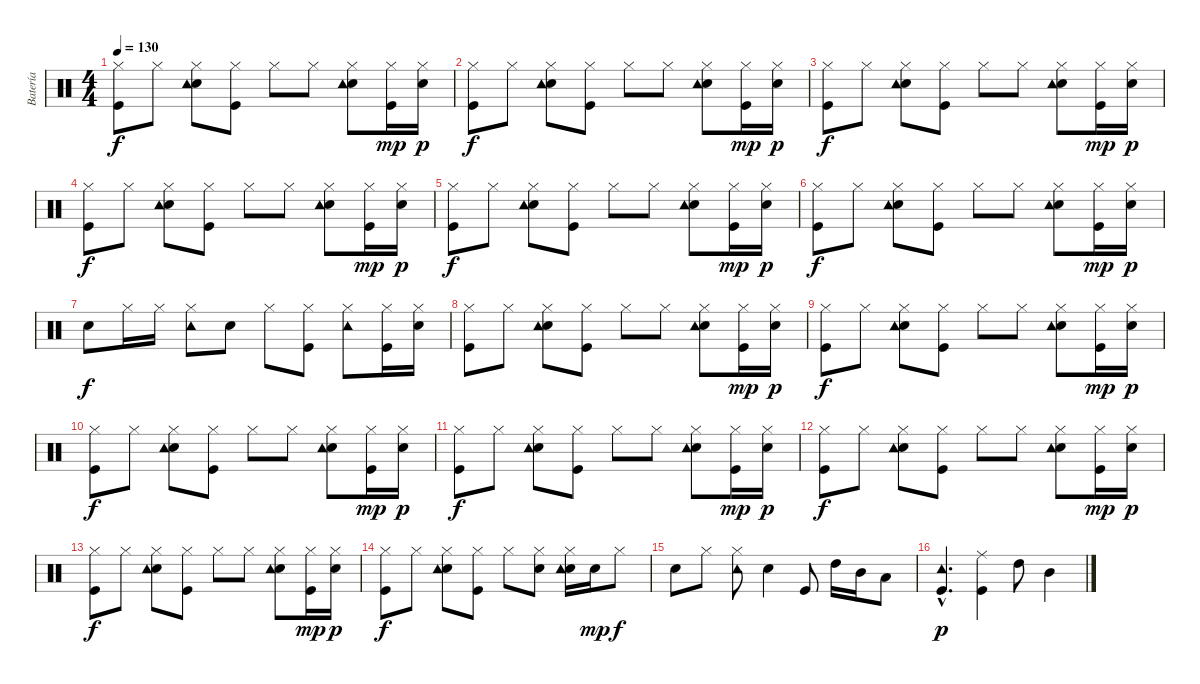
\track ("Batería" "Batería") {instrument percussion}
\staff {score}
\articulation defaults
\ts (4 4)
\tempo 130
\clef neutral
\ks c
("Hi-Hat (closed)" "Kick (hit)").8{dy f} "Hi-Hat (closed)".8 ("Hi-Hat (closed)" "Snare (hit) 2" "Tambourine (hit)").8 ("Hi-Hat (closed)" "Kick (hit)").8 "Hi-Hat (closed)".8 "Hi-Hat (closed)".8 ("Hi-Hat (closed)" "Snare (hit) 2" "Tambourine (hit)").8 ("Hi-Hat (closed)" "Kick (hit)").16{dy mp} ("Hi-Hat (closed)" "Snare (hit) 2").16{dy p} |
("Hi-Hat (closed)" "Kick (hit)").8{dy f} "Hi-Hat (closed)".8 ("Hi-Hat (closed)" "Snare (hit) 2" "Tambourine (hit)").8 ("Hi-Hat (closed)" "Kick (hit)").8 "Hi-Hat (closed)".8 "Hi-Hat (closed)".8 ("Hi-Hat (closed)" "Snare (hit) 2" "Tambourine (hit)").8 ("Hi-Hat (closed)" "Kick (hit)").16{dy mp} ("Hi-Hat (closed)" "Snare (hit) 2").16{dy p} |
("Hi-Hat (closed)" "Kick (hit)").8{dy f} "Hi-Hat (closed)".8 ("Hi-Hat (closed)" "Snare (hit) 2" "Tambourine (hit)").8 ("Hi-Hat (closed)" "Kick (hit)").8 "Hi-Hat (closed)".8 "Hi-Hat (closed)".8 ("Hi-Hat (closed)" "Snare (hit) 2" "Tambourine (hit)").8 ("Hi-Hat (closed)" "Kick (hit)").16{dy mp} ("Hi-Hat (closed)" "Snare (hit) 2").16{dy p} |
("Hi-Hat (closed)" "Kick (hit)").8{dy f} "Hi-Hat (closed)".8 ("Hi-Hat (closed)" "Snare (hit) 2" "Tambourine (hit)").8 ("Hi-Hat (closed)" "Kick (hit)").8 "Hi-Hat (closed)".8 "Hi-Hat (closed)".8 ("Hi-Hat (closed)" "Snare (hit) 2" "Tambourine (hit)").8 ("Hi-Hat (closed)" "Kick (hit)").16{dy mp} ("Hi-Hat (closed)" "Snare (hit) 2").16{dy p} |
("Hi-Hat (closed)" "Kick (hit)").8{dy f} "Hi-Hat (closed)".8 ("Hi-Hat (closed)" "Snare (hit) 2" "Tambourine (hit)").8 ("Hi-Hat (closed)" "Kick (hit)").8 "Hi-Hat (closed)".8 "Hi-Hat (closed)".8 ("Hi-Hat (closed)" "Snare (hit) 2" "Tambourine (hit)").8 ("Hi-Hat (closed)" "Kick (hit)").16{dy mp} ("Hi-Hat (closed)" "Snare (hit) 2").16{dy p} |
("Hi-Hat (closed)" "Kick (hit)").8{dy f} "Hi-Hat (closed)".8 ("Hi-Hat (closed)" "Snare (hit) 2" "Tambourine (hit)").8 ("Hi-Hat (closed)" "Kick (hit)").8 "Hi-Hat (closed)".8 "Hi-Hat (closed)".8 ("Hi-Hat (closed)" "Snare (hit) 2" "Tambourine (hit)").8 ("Hi-Hat (closed)" "Kick (hit)").16{dy mp} ("Hi-Hat (closed)" "Snare (hit) 2").16{dy p} |
"Snare (hit) 2".8{dy f} "Hi-Hat (closed)".16 "Hi-Hat (closed)".16 ("Hi-Hat (closed)" "Tambourine (hit)").8 "Snare (hit) 2".8 "Hi-Hat (closed)".8 ("Hi-Hat (closed)" "Kick (hit)").8 ("Hi-Hat (closed)" "Tambourine (hit)").8 ("Hi-Hat (closed)" "Kick (hit)").16 ("Hi-Hat (closed)" "Snare (hit) 2").16 |
("Hi-Hat (closed)" "Kick (hit)").8 "Hi-Hat (closed)".8 ("Hi-Hat (closed)" "Snare (hit) 2" "Tambourine (hit)").8 ("Hi-Hat (closed)" "Kick (hit)").8 "Hi-Hat (closed)".8 "Hi-Hat (closed)".8 ("Hi-Hat (closed)" "Snare (hit) 2" "Tambourine (hit)").8 ("Hi-Hat (closed)" "Kick (hit)").16{dy mp} ("Hi-Hat (closed)" "Snare (hit) 2").16{dy p} |
("Hi-Hat (closed)" "Kick (hit)").8{dy f} "Hi-Hat (closed)".8 ("Hi-Hat (closed)" "Snare (hit) 2" "Tambourine (hit)").8 ("Hi-Hat (closed)" "Kick (hit)").8 "Hi-Hat (closed)".8 "Hi-Hat (closed)".8 ("Hi-Hat (closed)" "Snare (hit) 2" "Tambourine (hit)").8 ("Hi-Hat (closed)" "Kick (hit)").16{dy mp} ("Hi-Hat (closed)" "Snare (hit) 2").16{dy p} |
("Hi-Hat (closed)" "Kick (hit)").8{dy f} "Hi-Hat (closed)".8 ("Hi-Hat (closed)" "Snare (hit) 2" "Tambourine (hit)").8 ("Hi-Hat (closed)" "Kick (hit)").8 "Hi-Hat (closed)".8 "Hi-Hat (closed)".8 ("Hi-Hat (closed)" "Snare (hit) 2" "Tambourine (hit)").8 ("Hi-Hat (closed)" "Kick (hit)").16{dy mp} ("Hi-Hat (closed)" "Snare (hit) 2").16{dy p} |
("Hi-Hat (closed)" "Kick (hit)").8{dy f} "Hi-Hat (closed)".8 ("Hi-Hat (closed)" "Snare (hit) 2" "Tambourine (hit)").8 ("Hi-Hat (closed)" "Kick (hit)").8 "Hi-Hat (closed)".8 "Hi-Hat (closed)".8 ("Hi-Hat (closed)" "Snare (hit) 2" "Tambourine (hit)").8 ("Hi-Hat (closed)" "Kick (hit)").16{dy mp} ("Hi-Hat (closed)" "Snare (hit) 2").16{dy p} |
("Hi-Hat (closed)" "Kick (hit)").8{dy f} "Hi-Hat (closed)".8 ("Hi-Hat (closed)" "Snare (hit) 2" "Tambourine (hit)").8 ("Hi-Hat (closed)" "Kick (hit)").8 "Hi-Hat (closed)".8 "Hi-Hat (closed)".8 ("Hi-Hat (closed)" "Snare (hit) 2" "Tambourine (hit)").8 ("Hi-Hat (closed)" "Kick (hit)").16{dy mp} ("Hi-Hat (closed)" "Snare (hit) 2").16{dy p} |
("Hi-Hat (closed)" "Kick (hit)").8{dy f} "Hi-Hat (closed)".8 ("Hi-Hat (closed)" "Snare (hit) 2" "Tambourine (hit)").8 ("Hi-Hat (closed)" "Kick (hit)").8 "Hi-Hat (closed)".8 "Hi-Hat (closed)".8 ("Hi-Hat (closed)" "Snare (hit) 2" "Tambourine (hit)").8 ("Hi-Hat (closed)" "Kick (hit)").16{dy mp} ("Hi-Hat (closed)" "Snare (hit) 2").16{dy p} |
("Hi-Hat (closed)" "Kick (hit)").8{dy f} "Hi-Hat (closed)".8 ("Hi-Hat (closed)" "Snare (hit) 2" "Tambourine (hit)").8 ("Hi-Hat (closed)" "Kick (hit)").8 "Hi-Hat (closed)".8 ("Hi-Hat (closed)" "Snare (hit) 2").8 ("Hi-Hat (closed)" "Snare (hit) 2" "Tambourine (hit)").16 "Snare (hit) 2".16{dy mp} "Hi-Hat (closed)".8{dy f} |
"Snare (hit) 2".8 "Hi-Hat (closed)".8 ("Hi-Hat (closed)" "Tambourine (hit)").8 "Snare (hit) 2".4 "Kick (hit)".8 "High Tom (hit)".16 "Mid Tom (hit)".16 "Low Tom (hit)".8 |
("Tambourine (hit)"{hac} "Kick (hit)"{hac}).4{d dy p} ("Ride (middle)" "Kick (hit)").4 "High Tom (hit)".8 "Mid Tom (hit)".4
